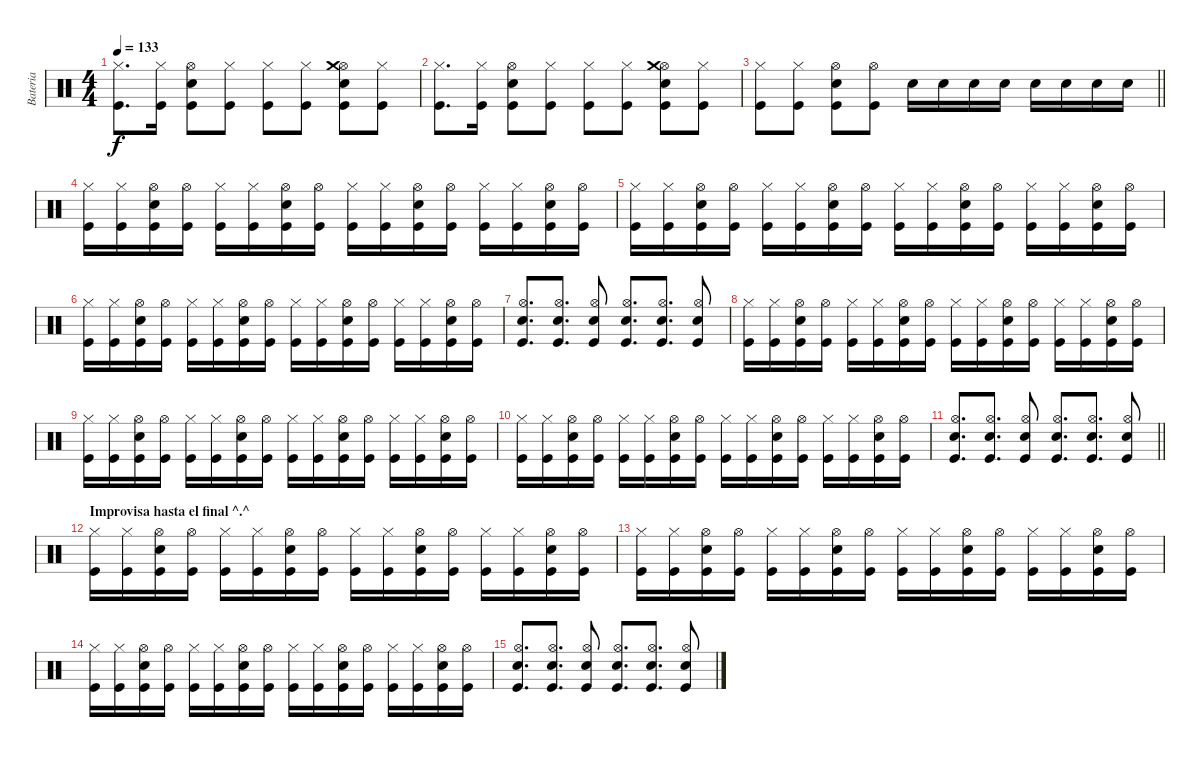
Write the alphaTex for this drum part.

\track ("Bateria" "Bateria") {instrument percussion}
\staff
\articulation defaults
\ts (4 4)
\tempo 133
\clef neutral
\ks c
("Hi-Hat (closed)" "Kick (hit)").8{d dy f} ("Hi-Hat (closed)" "Kick (hit)").16 ("Hi-Hat (open)" "Kick (hit)" "Snare (hit) 2").8 ("Hi-Hat (closed)" "Kick (hit)").8 ("Hi-Hat (closed)" "Kick (hit)").8 ("Hi-Hat (closed)" "Kick (hit)").8 ("Hi-Hat (open)" "Kick (hit)" "Snare (hit) 2" "Crash medium (hit)").8 ("Hi-Hat (closed)" "Kick (hit)").8 |
("Hi-Hat (closed)" "Kick (hit)").8{d} ("Hi-Hat (closed)" "Kick (hit)").16 ("Hi-Hat (open)" "Kick (hit)" "Snare (hit) 2").8 ("Hi-Hat (closed)" "Kick (hit)").8 ("Hi-Hat (closed)" "Kick (hit)").8 ("Hi-Hat (closed)" "Kick (hit)").8 ("Hi-Hat (open)" "Kick (hit)" "Snare (hit) 2" "Crash medium (hit)").8 ("Hi-Hat (closed)" "Kick (hit)").8 |
\barLineRight lightlight
("Hi-Hat (closed)" "Kick (hit)").8 ("Hi-Hat (closed)" "Kick (hit)").8 ("Hi-Hat (open)" "Kick (hit)" "Snare (hit) 2").8 ("Hi-Hat (open)" "Kick (hit)").8 "Snare (hit) 2".16 "Snare (hit) 2".16 "Snare (hit) 2".16 "Snare (hit) 2".16 "Snare (hit) 2".16 "Snare (hit) 2".16 "Snare (hit) 2".16 "Snare (hit) 2".16 |
("Hi-Hat (closed)" "Kick (hit)").16 ("Hi-Hat (closed)" "Kick (hit)").16 ("Hi-Hat (open)" "Kick (hit)" "Snare (hit) 2").16 ("Hi-Hat (open)" "Kick (hit)").16 ("Hi-Hat (closed)" "Kick (hit)").16 ("Hi-Hat (closed)" "Kick (hit)").16 ("Hi-Hat (open)" "Kick (hit)" "Snare (hit) 2").16 ("Hi-Hat (open)" "Kick (hit)").16 ("Hi-Hat (closed)" "Kick (hit)").16 ("Hi-Hat (closed)" "Kick (hit)").16 ("Hi-Hat (open)" "Kick (hit)" "Snare (hit) 2").16 ("Hi-Hat (open)" "Kick (hit)").16 ("Hi-Hat (closed)" "Kick (hit)").16 ("Hi-Hat (closed)" "Kick (hit)").16 ("Hi-Hat (open)" "Kick (hit)" "Snare (hit) 2").16 ("Hi-Hat (open)" "Kick (hit)").16 |
("Hi-Hat (closed)" "Kick (hit)").16 ("Hi-Hat (closed)" "Kick (hit)").16 ("Hi-Hat (open)" "Kick (hit)" "Snare (hit) 2").16 ("Hi-Hat (open)" "Kick (hit)").16 ("Hi-Hat (closed)" "Kick (hit)").16 ("Hi-Hat (closed)" "Kick (hit)").16 ("Hi-Hat (open)" "Kick (hit)" "Snare (hit) 2").16 ("Hi-Hat (open)" "Kick (hit)").16 ("Hi-Hat (closed)" "Kick (hit)").16 ("Hi-Hat (closed)" "Kick (hit)").16 ("Hi-Hat (open)" "Kick (hit)" "Snare (hit) 2").16 ("Hi-Hat (open)" "Kick (hit)").16 ("Hi-Hat (closed)" "Kick (hit)").16 ("Hi-Hat (closed)" "Kick (hit)").16 ("Hi-Hat (open)" "Kick (hit)" "Snare (hit) 2").16 ("Hi-Hat (open)" "Kick (hit)").16 |
("Hi-Hat (closed)" "Kick (hit)").16 ("Hi-Hat (closed)" "Kick (hit)").16 ("Hi-Hat (open)" "Kick (hit)" "Snare (hit) 2").16 ("Hi-Hat (open)" "Kick (hit)").16 ("Hi-Hat (closed)" "Kick (hit)").16 ("Hi-Hat (closed)" "Kick (hit)").16 ("Hi-Hat (open)" "Kick (hit)" "Snare (hit) 2").16 ("Hi-Hat (open)" "Kick (hit)").16 ("Hi-Hat (closed)" "Kick (hit)").16 ("Hi-Hat (closed)" "Kick (hit)").16 ("Hi-Hat (open)" "Kick (hit)" "Snare (hit) 2").16 ("Hi-Hat (open)" "Kick (hit)").16 ("Hi-Hat (closed)" "Kick (hit)").16 ("Hi-Hat (closed)" "Kick (hit)").16 ("Hi-Hat (open)" "Kick (hit)" "Snare (hit) 2").16 ("Hi-Hat (open)" "Kick (hit)").16 |
("Hi-Hat (open)" "Kick (hit)" "Snare (hit) 2").8{d} ("Hi-Hat (open)" "Kick (hit)" "Snare (hit) 2").8{d} ("Hi-Hat (open)" "Kick (hit)" "Snare (hit) 2").8 ("Hi-Hat (open)" "Kick (hit)" "Snare (hit) 2").8{d} ("Hi-Hat (open)" "Kick (hit)" "Snare (hit) 2").8{d} ("Hi-Hat (open)" "Kick (hit)" "Snare (hit) 2").8 |
("Hi-Hat (closed)" "Kick (hit)").16 ("Hi-Hat (closed)" "Kick (hit)").16 ("Hi-Hat (open)" "Kick (hit)" "Snare (hit) 2").16 ("Hi-Hat (open)" "Kick (hit)").16 ("Hi-Hat (closed)" "Kick (hit)").16 ("Hi-Hat (closed)" "Kick (hit)").16 ("Hi-Hat (open)" "Kick (hit)" "Snare (hit) 2").16 ("Hi-Hat (open)" "Kick (hit)").16 ("Hi-Hat (closed)" "Kick (hit)").16 ("Hi-Hat (closed)" "Kick (hit)").16 ("Hi-Hat (open)" "Kick (hit)" "Snare (hit) 2").16 ("Hi-Hat (open)" "Kick (hit)").16 ("Hi-Hat (closed)" "Kick (hit)").16 ("Hi-Hat (closed)" "Kick (hit)").16 ("Hi-Hat (open)" "Kick (hit)" "Snare (hit) 2").16 ("Hi-Hat (open)" "Kick (hit)").16 |
("Hi-Hat (closed)" "Kick (hit)").16 ("Hi-Hat (closed)" "Kick (hit)").16 ("Hi-Hat (open)" "Kick (hit)" "Snare (hit) 2").16 ("Hi-Hat (open)" "Kick (hit)").16 ("Hi-Hat (closed)" "Kick (hit)").16 ("Hi-Hat (closed)" "Kick (hit)").16 ("Hi-Hat (open)" "Kick (hit)" "Snare (hit) 2").16 ("Hi-Hat (open)" "Kick (hit)").16 ("Hi-Hat (closed)" "Kick (hit)").16 ("Hi-Hat (closed)" "Kick (hit)").16 ("Hi-Hat (open)" "Kick (hit)" "Snare (hit) 2").16 ("Hi-Hat (open)" "Kick (hit)").16 ("Hi-Hat (closed)" "Kick (hit)").16 ("Hi-Hat (closed)" "Kick (hit)").16 ("Hi-Hat (open)" "Kick (hit)" "Snare (hit) 2").16 ("Hi-Hat (open)" "Kick (hit)").16 |
("Hi-Hat (closed)" "Kick (hit)").16 ("Hi-Hat (closed)" "Kick (hit)").16 ("Hi-Hat (open)" "Kick (hit)" "Snare (hit) 2").16 ("Hi-Hat (open)" "Kick (hit)").16 ("Hi-Hat (closed)" "Kick (hit)").16 ("Hi-Hat (closed)" "Kick (hit)").16 ("Hi-Hat (open)" "Kick (hit)" "Snare (hit) 2").16 ("Hi-Hat (open)" "Kick (hit)").16 ("Hi-Hat (closed)" "Kick (hit)").16 ("Hi-Hat (closed)" "Kick (hit)").16 ("Hi-Hat (open)" "Kick (hit)" "Snare (hit) 2").16 ("Hi-Hat (open)" "Kick (hit)").16 ("Hi-Hat (closed)" "Kick (hit)").16 ("Hi-Hat (closed)" "Kick (hit)").16 ("Hi-Hat (open)" "Kick (hit)" "Snare (hit) 2").16 ("Hi-Hat (open)" "Kick (hit)").16 |
\barLineRight lightlight
("Hi-Hat (open)" "Kick (hit)" "Snare (hit) 2").8{d} ("Hi-Hat (open)" "Kick (hit)" "Snare (hit) 2").8{d} ("Hi-Hat (open)" "Kick (hit)" "Snare (hit) 2").8 ("Hi-Hat (open)" "Kick (hit)" "Snare (hit) 2").8{d} ("Hi-Hat (open)" "Kick (hit)" "Snare (hit) 2").8{d} ("Hi-Hat (open)" "Kick (hit)" "Snare (hit) 2").8 |
\section ("" "Improvisa hasta el final ^.^")
("Hi-Hat (closed)" "Kick (hit)").16 ("Hi-Hat (closed)" "Kick (hit)").16 ("Hi-Hat (open)" "Kick (hit)" "Snare (hit) 2").16 ("Hi-Hat (open)" "Kick (hit)").16 ("Hi-Hat (closed)" "Kick (hit)").16 ("Hi-Hat (closed)" "Kick (hit)").16 ("Hi-Hat (open)" "Kick (hit)" "Snare (hit) 2").16 ("Hi-Hat (open)" "Kick (hit)").16 ("Hi-Hat (closed)" "Kick (hit)").16 ("Hi-Hat (closed)" "Kick (hit)").16 ("Hi-Hat (open)" "Kick (hit)" "Snare (hit) 2").16 ("Hi-Hat (open)" "Kick (hit)").16 ("Hi-Hat (closed)" "Kick (hit)").16 ("Hi-Hat (closed)" "Kick (hit)").16 ("Hi-Hat (open)" "Kick (hit)" "Snare (hit) 2").16 ("Hi-Hat (open)" "Kick (hit)").16 |
("Hi-Hat (closed)" "Kick (hit)").16 ("Hi-Hat (closed)" "Kick (hit)").16 ("Hi-Hat (open)" "Kick (hit)" "Snare (hit) 2").16 ("Hi-Hat (open)" "Kick (hit)").16 ("Hi-Hat (closed)" "Kick (hit)").16 ("Hi-Hat (closed)" "Kick (hit)").16 ("Hi-Hat (open)" "Kick (hit)" "Snare (hit) 2").16 ("Hi-Hat (open)" "Kick (hit)").16 ("Hi-Hat (closed)" "Kick (hit)").16 ("Hi-Hat (closed)" "Kick (hit)").16 ("Hi-Hat (open)" "Kick (hit)" "Snare (hit) 2").16 ("Hi-Hat (open)" "Kick (hit)").16 ("Hi-Hat (closed)" "Kick (hit)").16 ("Hi-Hat (closed)" "Kick (hit)").16 ("Hi-Hat (open)" "Kick (hit)" "Snare (hit) 2").16 ("Hi-Hat (open)" "Kick (hit)").16 |
("Hi-Hat (closed)" "Kick (hit)").16 ("Hi-Hat (closed)" "Kick (hit)").16 ("Hi-Hat (open)" "Kick (hit)" "Snare (hit) 2").16 ("Hi-Hat (open)" "Kick (hit)").16 ("Hi-Hat (closed)" "Kick (hit)").16 ("Hi-Hat (closed)" "Kick (hit)").16 ("Hi-Hat (open)" "Kick (hit)" "Snare (hit) 2").16 ("Hi-Hat (open)" "Kick (hit)").16 ("Hi-Hat (closed)" "Kick (hit)").16 ("Hi-Hat (closed)" "Kick (hit)").16 ("Hi-Hat (open)" "Kick (hit)" "Snare (hit) 2").16 ("Hi-Hat (open)" "Kick (hit)").16 ("Hi-Hat (closed)" "Kick (hit)").16 ("Hi-Hat (closed)" "Kick (hit)").16 ("Hi-Hat (open)" "Kick (hit)" "Snare (hit) 2").16 ("Hi-Hat (open)" "Kick (hit)").16 |
("Hi-Hat (open)" "Kick (hit)" "Snare (hit) 2").8{d} ("Hi-Hat (open)" "Kick (hit)" "Snare (hit) 2").8{d} ("Hi-Hat (open)" "Kick (hit)" "Snare (hit) 2").8 ("Hi-Hat (open)" "Kick (hit)" "Snare (hit) 2").8{d} ("Hi-Hat (open)" "Kick (hit)" "Snare (hit) 2").8{d} ("Hi-Hat (open)" "Kick (hit)" "Snare (hit) 2").8
